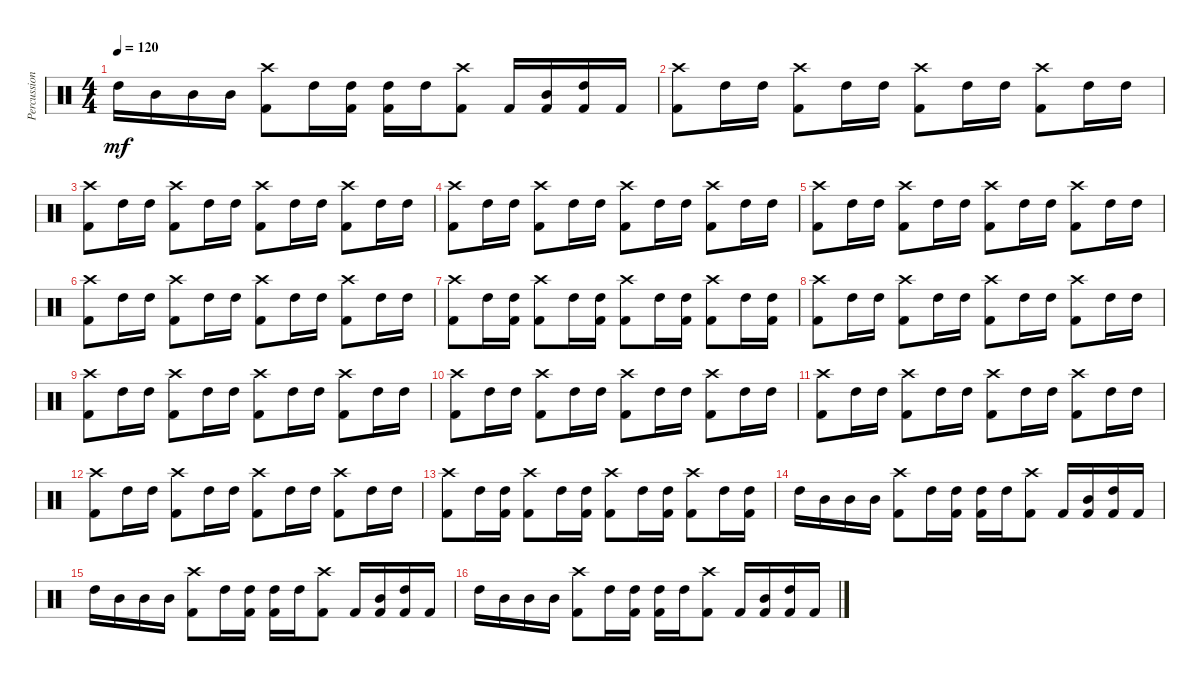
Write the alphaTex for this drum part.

\track ("Percussion" "Percussion") {instrument percussion}
\staff {score}
\articulation defaults
\ts (4 4)
\tempo 120
\clef neutral
\ks c "High Tom (hit)".16{dy mf} "Mid Tom (hit)".16 "Mid Tom (hit)".16 "Mid Tom (hit)".16
("Crash high (hit)" "Kick (hit) 2").8 "High Tom (hit)".16 ("High Tom (hit)" "Kick (hit) 2").16 ("High Tom (hit)" "Kick (hit) 2").16 "High Tom (hit)".16 ("Crash high (hit)" "Kick (hit) 2").8 "Kick (hit) 2".16 ("Mid Tom (hit)" "Kick (hit) 2").16 ("High Tom (hit)" "Kick (hit) 2").16 "Kick (hit) 2".16 |
("Crash high (hit)" "Kick (hit) 2").8 "High Tom (hit)".16 "High Tom (hit)".16 ("Crash high (hit)" "Kick (hit) 2").8 "High Tom (hit)".16 "High Tom (hit)".16 ("Crash high (hit)" "Kick (hit) 2").8 "High Tom (hit)".16 "High Tom (hit)".16 ("Crash high (hit)" "Kick (hit) 2").8 "High Tom (hit)".16 "High Tom (hit)".16 |
("Crash high (hit)" "Kick (hit) 2").8 "High Tom (hit)".16 "High Tom (hit)".16 ("Crash high (hit)" "Kick (hit) 2").8 "High Tom (hit)".16 "High Tom (hit)".16 ("Crash high (hit)" "Kick (hit) 2").8 "High Tom (hit)".16 "High Tom (hit)".16 ("Crash high (hit)" "Kick (hit) 2").8 "High Tom (hit)".16 "High Tom (hit)".16 |
("Crash high (hit)" "Kick (hit) 2").8 "High Tom (hit)".16 "High Tom (hit)".16 ("Crash high (hit)" "Kick (hit) 2").8 "High Tom (hit)".16 "High Tom (hit)".16 ("Crash high (hit)" "Kick (hit) 2").8 "High Tom (hit)".16 "High Tom (hit)".16 ("Crash high (hit)" "Kick (hit) 2").8 "High Tom (hit)".16 "High Tom (hit)".16 |
("Crash high (hit)" "Kick (hit) 2").8 "High Tom (hit)".16 "High Tom (hit)".16 ("Crash high (hit)" "Kick (hit) 2").8 "High Tom (hit)".16 "High Tom (hit)".16 ("Crash high (hit)" "Kick (hit) 2").8 "High Tom (hit)".16 "High Tom (hit)".16 ("Crash high (hit)" "Kick (hit) 2").8 "High Tom (hit)".16 "High Tom (hit)".16 |
("Crash high (hit)" "Kick (hit) 2").8 "High Tom (hit)".16 "High Tom (hit)".16 ("Crash high (hit)" "Kick (hit) 2").8 "High Tom (hit)".16 "High Tom (hit)".16 ("Crash high (hit)" "Kick (hit) 2").8 "High Tom (hit)".16 "High Tom (hit)".16 ("Crash high (hit)" "Kick (hit) 2").8 "High Tom (hit)".16 "High Tom (hit)".16 |
("Crash high (hit)" "Kick (hit) 2").8 "High Tom (hit)".16 ("High Tom (hit)" "Kick (hit) 2").16 ("Crash high (hit)" "Kick (hit) 2").8 "High Tom (hit)".16 ("High Tom (hit)" "Kick (hit) 2").16 ("Crash high (hit)" "Kick (hit) 2").8 "High Tom (hit)".16 ("High Tom (hit)" "Kick (hit) 2").16 ("Crash high (hit)" "Kick (hit) 2").8 "High Tom (hit)".16 ("High Tom (hit)" "Kick (hit) 2").16 |
("Crash high (hit)" "Kick (hit) 2").8 "High Tom (hit)".16 "High Tom (hit)".16 ("Crash high (hit)" "Kick (hit) 2").8 "High Tom (hit)".16 "High Tom (hit)".16 ("Crash high (hit)" "Kick (hit) 2").8 "High Tom (hit)".16 "High Tom (hit)".16 ("Crash high (hit)" "Kick (hit) 2").8 "High Tom (hit)".16 "High Tom (hit)".16 |
("Crash high (hit)" "Kick (hit) 2").8 "High Tom (hit)".16 "High Tom (hit)".16 ("Crash high (hit)" "Kick (hit) 2").8 "High Tom (hit)".16 "High Tom (hit)".16 ("Crash high (hit)" "Kick (hit) 2").8 "High Tom (hit)".16 "High Tom (hit)".16 ("Crash high (hit)" "Kick (hit) 2").8 "High Tom (hit)".16 "High Tom (hit)".16 |
("Crash high (hit)" "Kick (hit) 2").8 "High Tom (hit)".16 "High Tom (hit)".16 ("Crash high (hit)" "Kick (hit) 2").8 "High Tom (hit)".16 "High Tom (hit)".16 ("Crash high (hit)" "Kick (hit) 2").8 "High Tom (hit)".16 "High Tom (hit)".16 ("Crash high (hit)" "Kick (hit) 2").8 "High Tom (hit)".16 "High Tom (hit)".16 |
("Crash high (hit)" "Kick (hit) 2").8 "High Tom (hit)".16 "High Tom (hit)".16 ("Crash high (hit)" "Kick (hit) 2").8 "High Tom (hit)".16 "High Tom (hit)".16 ("Crash high (hit)" "Kick (hit) 2").8 "High Tom (hit)".16 "High Tom (hit)".16 ("Crash high (hit)" "Kick (hit) 2").8 "High Tom (hit)".16 "High Tom (hit)".16 |
("Crash high (hit)" "Kick (hit) 2").8 "High Tom (hit)".16 "High Tom (hit)".16 ("Crash high (hit)" "Kick (hit) 2").8 "High Tom (hit)".16 "High Tom (hit)".16 ("Crash high (hit)" "Kick (hit) 2").8 "High Tom (hit)".16 "High Tom (hit)".16 ("Crash high (hit)" "Kick (hit) 2").8 "High Tom (hit)".16 "High Tom (hit)".16 |
("Crash high (hit)" "Kick (hit) 2").8 "High Tom (hit)".16 ("High Tom (hit)" "Kick (hit) 2").16 ("Crash high (hit)" "Kick (hit) 2").8 "High Tom (hit)".16 ("High Tom (hit)" "Kick (hit) 2").16 ("Crash high (hit)" "Kick (hit) 2").8 "High Tom (hit)".16 ("High Tom (hit)" "Kick (hit) 2").16 ("Crash high (hit)" "Kick (hit) 2").8 "High Tom (hit)".16 ("High Tom (hit)" "Kick (hit) 2").16 |
"High Tom (hit)".16 "Mid Tom (hit)".16 "Mid Tom (hit)".16 "Mid Tom (hit)".16 ("Crash high (hit)" "Kick (hit) 2").8 "High Tom (hit)".16 ("High Tom (hit)" "Kick (hit) 2").16 ("High Tom (hit)" "Kick (hit) 2").16 "High Tom (hit)".16 ("Crash high (hit)" "Kick (hit) 2").8 "Kick (hit) 2".16 ("Mid Tom (hit)" "Kick (hit) 2").16 ("High Tom (hit)" "Kick (hit) 2").16 "Kick (hit) 2".16 |
"High Tom (hit)".16 "Mid Tom (hit)".16 "Mid Tom (hit)".16 "Mid Tom (hit)".16 ("Crash high (hit)" "Kick (hit) 2").8 "High Tom (hit)".16 ("High Tom (hit)" "Kick (hit) 2").16 ("High Tom (hit)" "Kick (hit) 2").16 "High Tom (hit)".16 ("Crash high (hit)" "Kick (hit) 2").8 "Kick (hit) 2".16 ("Mid Tom (hit)" "Kick (hit) 2").16 ("High Tom (hit)" "Kick (hit) 2").16 "Kick (hit) 2".16 |
"High Tom (hit)".16 "Mid Tom (hit)".16 "Mid Tom (hit)".16 "Mid Tom (hit)".16 ("Crash high (hit)" "Kick (hit) 2").8 "High Tom (hit)".16 ("High Tom (hit)" "Kick (hit) 2").16 ("High Tom (hit)" "Kick (hit) 2").16 "High Tom (hit)".16 ("Crash high (hit)" "Kick (hit) 2").8 "Kick (hit) 2".16 ("Mid Tom (hit)" "Kick (hit) 2").16 ("High Tom (hit)" "Kick (hit) 2").16 "Kick (hit) 2".16
